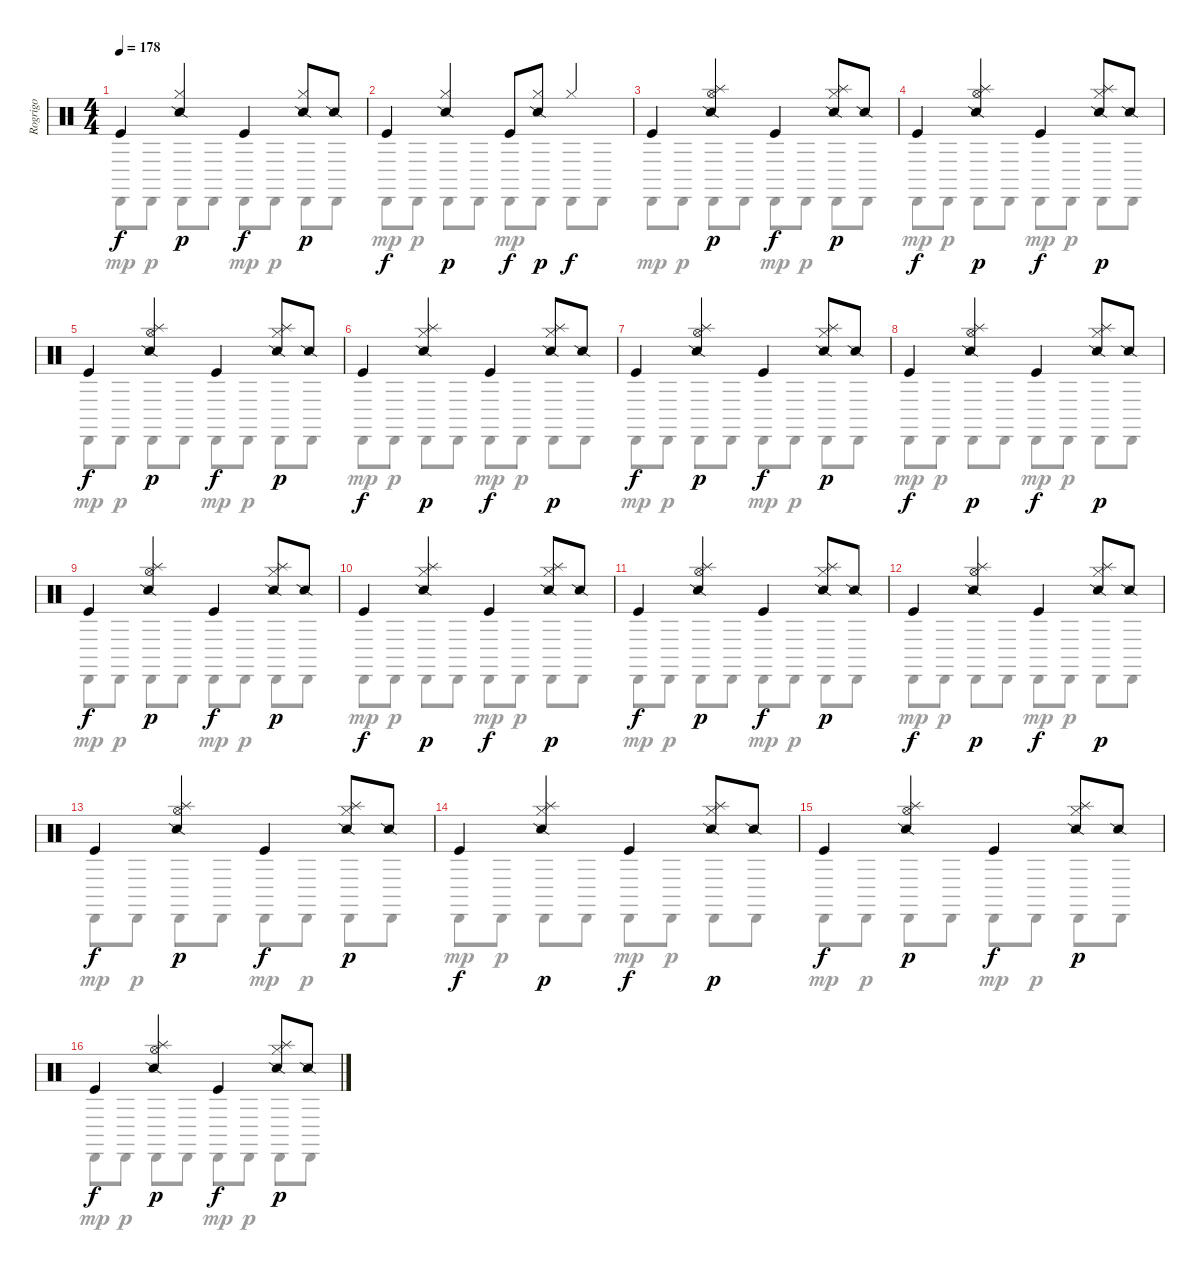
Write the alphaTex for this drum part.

\track ("Rogrigo" "Rogrigo") {instrument percussion}
\staff {score}
\articulation defaults
\voice
\ts (4 4)
\tempo 178
\clef neutral
\ks c "Kick (hit)".4{dy f}
("Hi-Hat (closed)" "Snare (side stick) 2").4{dy p} "Kick (hit)".4{dy f} ("Hi-Hat (closed)" "Snare (side stick) 2").8{dy p} "Snare (side stick) 2".8 |
"Kick (hit)".4{dy f} ("Hi-Hat (closed)" "Snare (side stick) 2").4{dy p} "Kick (hit)".8{dy f} ("Hi-Hat (closed)" "Snare (side stick) 2").8{dy p} "Hi-Hat (closed)".4{dy f} |
"Kick (hit)".4 ("Hi-Hat (open)" "Splash (hit)" "Snare (side stick) 2").4{dy p} "Kick (hit)".4{dy f} ("Hi-Hat (closed)" "Splash (hit)" "Snare (side stick) 2").8{dy p} "Snare (side stick) 2".8 |
"Kick (hit)".4{dy f} ("Hi-Hat (open)" "Splash (hit)" "Snare (side stick) 2").4{dy p} "Kick (hit)".4{dy f} ("Hi-Hat (closed)" "Splash (hit)" "Snare (side stick) 2").8{dy p} "Snare (side stick) 2".8 |
"Kick (hit)".4{dy f} ("Hi-Hat (open)" "Splash (hit)" "Snare (side stick) 2").4{dy p} "Kick (hit)".4{dy f} ("Hi-Hat (closed)" "Splash (hit)" "Snare (side stick) 2").8{dy p} "Snare (side stick) 2".8 |
"Kick (hit)".4{dy f} ("Hi-Hat (closed)" "Splash (hit)" "Snare (side stick) 2").4{dy p} "Kick (hit)".4{dy f} ("Hi-Hat (closed)" "Splash (hit)" "Snare (side stick) 2").8{dy p} "Snare (side stick) 2".8 |
"Kick (hit)".4{dy f} ("Hi-Hat (open)" "Splash (hit)" "Snare (side stick) 2").4{dy p} "Kick (hit)".4{dy f} ("Hi-Hat (closed)" "Splash (hit)" "Snare (side stick) 2").8{dy p} "Snare (side stick) 2".8 |
"Kick (hit)".4{dy f} ("Hi-Hat (open)" "Splash (hit)" "Snare (side stick) 2").4{dy p} "Kick (hit)".4{dy f} ("Hi-Hat (closed)" "Splash (hit)" "Snare (side stick) 2").8{dy p} "Snare (side stick) 2".8 |
"Kick (hit)".4{dy f} ("Hi-Hat (open)" "Splash (hit)" "Snare (side stick) 2").4{dy p} "Kick (hit)".4{dy f} ("Hi-Hat (closed)" "Splash (hit)" "Snare (side stick) 2").8{dy p} "Snare (side stick) 2".8 |
"Kick (hit)".4{dy f} ("Hi-Hat (closed)" "Splash (hit)" "Snare (side stick) 2").4{dy p} "Kick (hit)".4{dy f} ("Hi-Hat (closed)" "Splash (hit)" "Snare (side stick) 2").8{dy p} "Snare (side stick) 2".8 |
"Kick (hit)".4{dy f} ("Hi-Hat (open)" "Splash (hit)" "Snare (side stick) 2").4{dy p} "Kick (hit)".4{dy f} ("Hi-Hat (closed)" "Splash (hit)" "Snare (side stick) 2").8{dy p} "Snare (side stick) 2".8 |
"Kick (hit)".4{dy f} ("Hi-Hat (open)" "Splash (hit)" "Snare (side stick) 2").4{dy p} "Kick (hit)".4{dy f} ("Hi-Hat (closed)" "Splash (hit)" "Snare (side stick) 2").8{dy p} "Snare (side stick) 2".8 |
"Kick (hit)".4{dy f} ("Hi-Hat (open)" "Splash (hit)" "Snare (side stick) 2").4{dy p} "Kick (hit)".4{dy f} ("Hi-Hat (closed)" "Splash (hit)" "Snare (side stick) 2").8{dy p} "Snare (side stick) 2".8 |
"Kick (hit)".4{dy f} ("Hi-Hat (closed)" "Splash (hit)" "Snare (side stick) 2").4{dy p} "Kick (hit)".4{dy f} ("Hi-Hat (closed)" "Splash (hit)" "Snare (side stick) 2").8{dy p} "Snare (side stick) 2".8 |
"Kick (hit)".4{dy f} ("Hi-Hat (open)" "Splash (hit)" "Snare (side stick) 2").4{dy p} "Kick (hit)".4{dy f} ("Hi-Hat (closed)" "Splash (hit)" "Snare (side stick) 2").8{dy p} "Snare (side stick) 2".8 |
"Kick (hit)".4{dy f} ("Hi-Hat (open)" "Splash (hit)" "Snare (side stick) 2").4{dy p} "Kick (hit)".4{dy f} ("Hi-Hat (closed)" "Splash (hit)" "Snare (side stick) 2").8{dy p} "Snare (side stick) 2".8
\voice
\clef neutral
\ottava regular
\simile none
\ks c "Cabasa (hit)".8{dy mp} "Cabasa (hit)".8{dy p} "Cabasa (hit)".8 "Cabasa (hit)".8 "Cabasa (hit)".8{dy mp} "Cabasa (hit)".8{dy p} "Cabasa (hit)".8 "Cabasa (hit)".8
|
"Cabasa (hit)".8{dy mp} "Cabasa (hit)".8{dy p} "Cabasa (hit)".8 "Cabasa (hit)".8 "Cabasa (hit)".8{dy mp} "Cabasa (hit)".8{dy p} "Cabasa (hit)".8 "Cabasa (hit)".8 |
"Cabasa (hit)".8{dy mp} "Cabasa (hit)".8{dy p} "Cabasa (hit)".8 "Cabasa (hit)".8 "Cabasa (hit)".8{dy mp} "Cabasa (hit)".8{dy p} "Cabasa (hit)".8 "Cabasa (hit)".8 |
"Cabasa (hit)".8{dy mp} "Cabasa (hit)".8{dy p} "Cabasa (hit)".8 "Cabasa (hit)".8 "Cabasa (hit)".8{dy mp} "Cabasa (hit)".8{dy p} "Cabasa (hit)".8 "Cabasa (hit)".8 |
"Cabasa (hit)".8{dy mp} "Cabasa (hit)".8{dy p} "Cabasa (hit)".8 "Cabasa (hit)".8 "Cabasa (hit)".8{dy mp} "Cabasa (hit)".8{dy p} "Cabasa (hit)".8 "Cabasa (hit)".8 |
"Cabasa (hit)".8{dy mp} "Cabasa (hit)".8{dy p} "Cabasa (hit)".8 "Cabasa (hit)".8 "Cabasa (hit)".8{dy mp} "Cabasa (hit)".8{dy p} "Cabasa (hit)".8 "Cabasa (hit)".8 |
"Cabasa (hit)".8{dy mp} "Cabasa (hit)".8{dy p} "Cabasa (hit)".8 "Cabasa (hit)".8 "Cabasa (hit)".8{dy mp} "Cabasa (hit)".8{dy p} "Cabasa (hit)".8 "Cabasa (hit)".8 |
"Cabasa (hit)".8{dy mp} "Cabasa (hit)".8{dy p} "Cabasa (hit)".8 "Cabasa (hit)".8 "Cabasa (hit)".8{dy mp} "Cabasa (hit)".8{dy p} "Cabasa (hit)".8 "Cabasa (hit)".8 |
"Cabasa (hit)".8{dy mp} "Cabasa (hit)".8{dy p} "Cabasa (hit)".8 "Cabasa (hit)".8 "Cabasa (hit)".8{dy mp} "Cabasa (hit)".8{dy p} "Cabasa (hit)".8 "Cabasa (hit)".8 |
"Cabasa (hit)".8{dy mp} "Cabasa (hit)".8{dy p} "Cabasa (hit)".8 "Cabasa (hit)".8 "Cabasa (hit)".8{dy mp} "Cabasa (hit)".8{dy p} "Cabasa (hit)".8 "Cabasa (hit)".8 |
"Cabasa (hit)".8{dy mp} "Cabasa (hit)".8{dy p} "Cabasa (hit)".8 "Cabasa (hit)".8 "Cabasa (hit)".8{dy mp} "Cabasa (hit)".8{dy p} "Cabasa (hit)".8 "Cabasa (hit)".8 |
"Cabasa (hit)".8{dy mp} "Cabasa (hit)".8{dy p} "Cabasa (hit)".8 "Cabasa (hit)".8 "Cabasa (hit)".8{dy mp} "Cabasa (hit)".8{dy p} "Cabasa (hit)".8 "Cabasa (hit)".8 |
"Cabasa (hit)".8{dy mp} "Cabasa (hit)".8{dy p} "Cabasa (hit)".8 "Cabasa (hit)".8 "Cabasa (hit)".8{dy mp} "Cabasa (hit)".8{dy p} "Cabasa (hit)".8 "Cabasa (hit)".8 |
"Cabasa (hit)".8{dy mp} "Cabasa (hit)".8{dy p} "Cabasa (hit)".8 "Cabasa (hit)".8 "Cabasa (hit)".8{dy mp} "Cabasa (hit)".8{dy p} "Cabasa (hit)".8 "Cabasa (hit)".8 |
"Cabasa (hit)".8{dy mp} "Cabasa (hit)".8{dy p} "Cabasa (hit)".8 "Cabasa (hit)".8 "Cabasa (hit)".8{dy mp} "Cabasa (hit)".8{dy p} "Cabasa (hit)".8 "Cabasa (hit)".8 |
"Cabasa (hit)".8{dy mp} "Cabasa (hit)".8{dy p} "Cabasa (hit)".8 "Cabasa (hit)".8 "Cabasa (hit)".8{dy mp} "Cabasa (hit)".8{dy p} "Cabasa (hit)".8 "Cabasa (hit)".8
